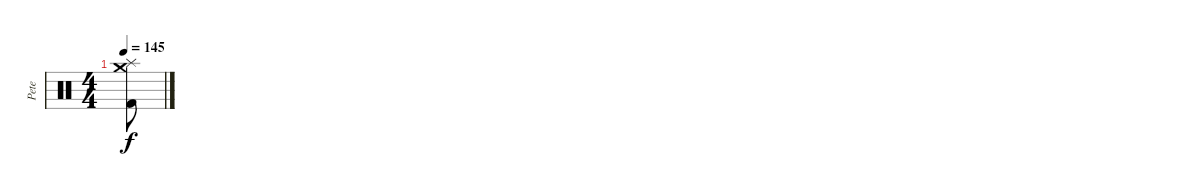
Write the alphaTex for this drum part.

\track ("Pete" "Pete") {instrument percussion}
\staff {score}
\articulation defaults
\ts (4 4)
\tempo 145
\clef neutral
\ks c
("Crash medium (hit)" "Splash (hit)" "Kick (hit) 2").8{dy f}
